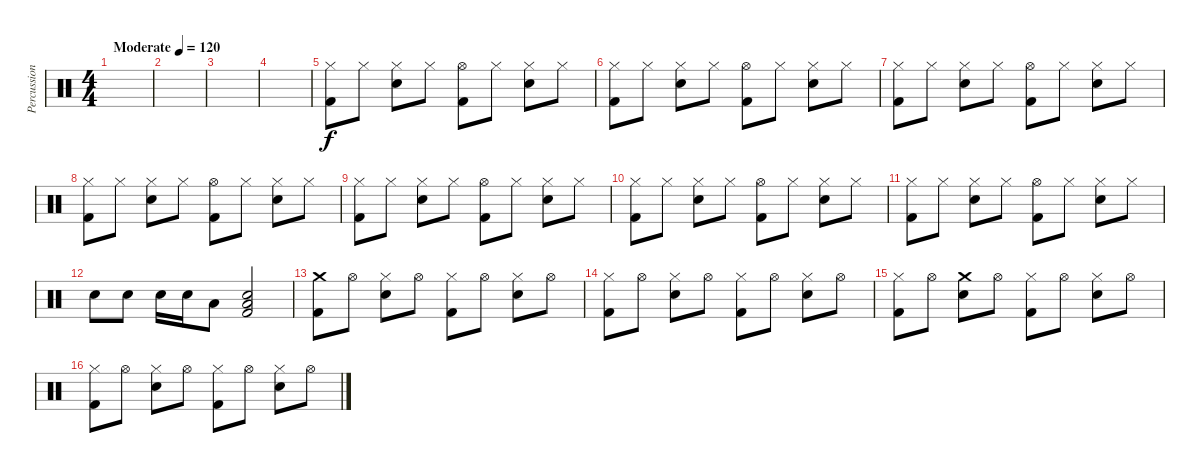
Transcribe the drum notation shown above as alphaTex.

\track ("Percussion" "Percussion") {instrument percussion}
\staff {score}
\articulation defaults
\ts (4 4)
\tempo (120 "Moderate")
\clef neutral
\ks c
|
|
|
|
("Hi-Hat (closed)" "Kick (hit) 2").8 "Hi-Hat (closed)".8 ("Hi-Hat (closed)" "Snare (hit) 2").8 "Hi-Hat (closed)".8 ("Hi-Hat (open)" "Kick (hit) 2").8 "Hi-Hat (closed)".8 ("Hi-Hat (closed)" "Snare (hit) 2").8 "Hi-Hat (closed)".8 |
("Hi-Hat (closed)" "Kick (hit) 2").8 "Hi-Hat (closed)".8 ("Hi-Hat (closed)" "Snare (hit) 2").8 "Hi-Hat (closed)".8 ("Hi-Hat (open)" "Kick (hit) 2").8 "Hi-Hat (closed)".8 ("Hi-Hat (closed)" "Snare (hit) 2").8 "Hi-Hat (closed)".8 |
("Hi-Hat (closed)" "Kick (hit) 2").8 "Hi-Hat (closed)".8 ("Hi-Hat (closed)" "Snare (hit) 2").8 "Hi-Hat (closed)".8 ("Hi-Hat (open)" "Kick (hit) 2").8 "Hi-Hat (closed)".8 ("Hi-Hat (closed)" "Snare (hit) 2").8 "Hi-Hat (closed)".8 |
("Hi-Hat (closed)" "Kick (hit) 2").8 "Hi-Hat (closed)".8 ("Hi-Hat (closed)" "Snare (hit) 2").8 "Hi-Hat (closed)".8 ("Hi-Hat (open)" "Kick (hit) 2").8 "Hi-Hat (closed)".8 ("Hi-Hat (closed)" "Snare (hit) 2").8 "Hi-Hat (closed)".8 |
("Hi-Hat (closed)" "Kick (hit) 2").8 "Hi-Hat (closed)".8 ("Hi-Hat (closed)" "Snare (hit) 2").8 "Hi-Hat (closed)".8 ("Hi-Hat (open)" "Kick (hit) 2").8 "Hi-Hat (closed)".8 ("Hi-Hat (closed)" "Snare (hit) 2").8 "Hi-Hat (closed)".8 |
("Hi-Hat (closed)" "Kick (hit) 2").8 "Hi-Hat (closed)".8 ("Hi-Hat (closed)" "Snare (hit) 2").8 "Hi-Hat (closed)".8 ("Hi-Hat (open)" "Kick (hit) 2").8 "Hi-Hat (closed)".8 ("Hi-Hat (closed)" "Snare (hit) 2").8 "Hi-Hat (closed)".8 |
("Hi-Hat (closed)" "Kick (hit) 2").8 "Hi-Hat (closed)".8 ("Hi-Hat (closed)" "Snare (hit) 2").8 "Hi-Hat (closed)".8 ("Hi-Hat (open)" "Kick (hit) 2").8 "Hi-Hat (closed)".8 ("Hi-Hat (closed)" "Snare (hit) 2").8 "Hi-Hat (closed)".8 |
"Snare (hit) 2".8 "Snare (hit) 2".8 "Snare (hit) 2".16 "Snare (hit) 2".16 "Low Tom (hit)".8 ("Kick (hit) 2" "Low Floor Tom (hit)" "Snare (hit) 2").2 |
("Crash medium (hit)" "Kick (hit) 2").8 "Hi-Hat (open)".8 ("Hi-Hat (closed)" "Snare (hit) 2").8 "Hi-Hat (open)".8 ("Hi-Hat (closed)" "Kick (hit) 2").8 "Hi-Hat (open)".8 ("Hi-Hat (closed)" "Snare (hit) 2").8 "Hi-Hat (open)".8 |
("Hi-Hat (closed)" "Kick (hit) 2").8 "Hi-Hat (open)".8 ("Hi-Hat (closed)" "Snare (hit) 2").8 "Hi-Hat (open)".8 ("Hi-Hat (closed)" "Kick (hit) 2").8 "Hi-Hat (open)".8 ("Hi-Hat (closed)" "Snare (hit) 2").8 "Hi-Hat (open)".8 |
("Hi-Hat (closed)" "Kick (hit) 2").8 "Hi-Hat (open)".8 ("Crash medium (hit)" "Snare (hit) 2").8 "Hi-Hat (open)".8 ("Hi-Hat (closed)" "Kick (hit) 2").8 "Hi-Hat (open)".8 ("Hi-Hat (closed)" "Snare (hit) 2").8 "Hi-Hat (open)".8 |
("Hi-Hat (closed)" "Kick (hit) 2").8 "Hi-Hat (open)".8 ("Hi-Hat (closed)" "Snare (hit) 2").8 "Hi-Hat (open)".8 ("Hi-Hat (closed)" "Kick (hit) 2").8 "Hi-Hat (open)".8 ("Hi-Hat (closed)" "Snare (hit) 2").8 "Hi-Hat (open)".8
